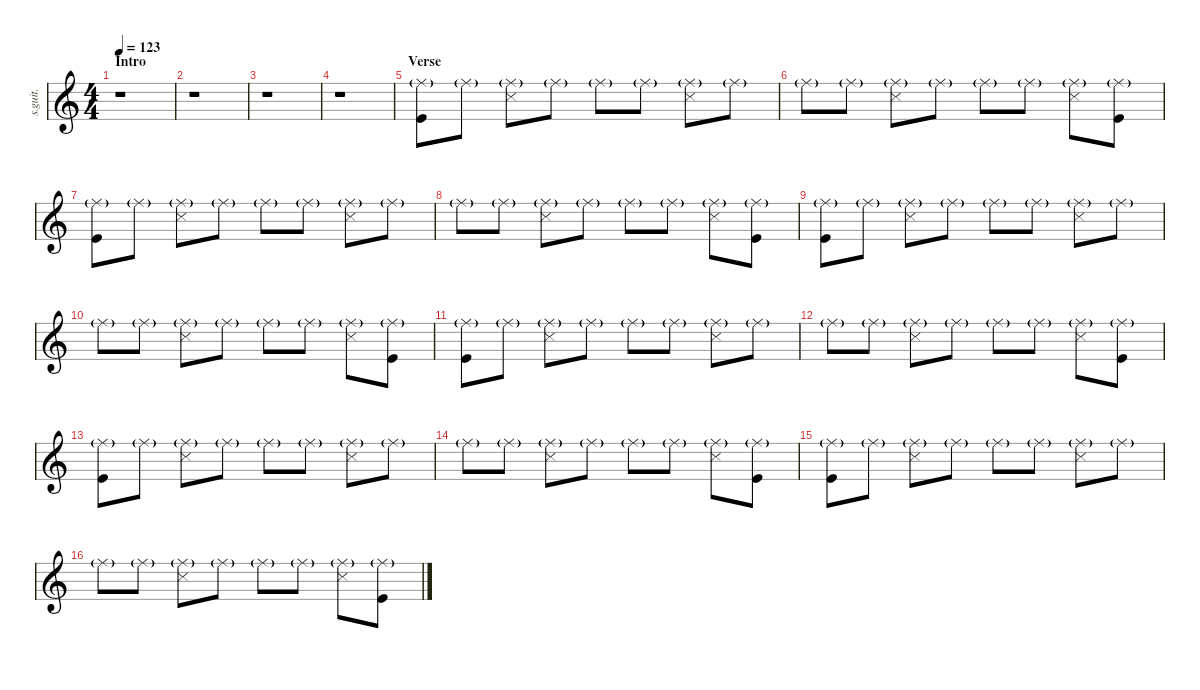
\defaultSystemsLayout 4
\hideDynamics
\bracketExtendMode nobrackets
\track ("Dave Grohl" "s.guit.") {instrument percussion}
\staff {score}
\articulation defaults
\ts (4 4)
\beaming (8 2 2 2 2)
\section ("" "Intro")
\tempo 123
\clef g2
\ks c
r.1{dy f} |
r.1 |
r.1 |
r.1 |
\section ("" "Verse")
("Ride (middle)"{g} "Kick (hit)").8{lyrics (0 "") lyrics (1 "") lyrics (2 "") lyrics (3 "") lyrics (4 "")} "Ride (middle)"{g}.8{lyrics (0 "") lyrics (1 "") lyrics (2 "") lyrics (3 "") lyrics (4 "") dy fff} ("Ride (middle)"{g} "Snare (side stick) 3").8{lyrics (0 "") lyrics (1 "") lyrics (2 "") lyrics (3 "") lyrics (4 "") dy f} "Ride (middle)"{g}.8{lyrics (0 "") lyrics (1 "") lyrics (2 "") lyrics (3 "") lyrics (4 "") dy fff} "Ride (middle)"{g}.8{lyrics (0 "") lyrics (1 "") lyrics (2 "") lyrics (3 "") lyrics (4 "")} "Ride (middle)"{g}.8{lyrics (0 "") lyrics (1 "") lyrics (2 "") lyrics (3 "") lyrics (4 "")} ("Ride (middle)"{g} "Snare (side stick) 3").8{lyrics (0 "") lyrics (1 "") lyrics (2 "") lyrics (3 "") lyrics (4 "") dy f} "Ride (middle)"{g}.8{lyrics (0 "") lyrics (1 "") lyrics (2 "") lyrics (3 "") lyrics (4 "") dy fff} |
"Ride (middle)"{g}.8{lyrics (0 "") lyrics (1 "") lyrics (2 "") lyrics (3 "") lyrics (4 "")} "Ride (middle)"{g}.8{lyrics (0 "") lyrics (1 "") lyrics (2 "") lyrics (3 "") lyrics (4 "")} ("Ride (middle)"{g} "Snare (side stick) 3").8{lyrics (0 "") lyrics (1 "") lyrics (2 "") lyrics (3 "") lyrics (4 "") dy f} "Ride (middle)"{g}.8{lyrics (0 "") lyrics (1 "") lyrics (2 "") lyrics (3 "") lyrics (4 "") dy fff} "Ride (middle)"{g}.8{lyrics (0 "") lyrics (1 "") lyrics (2 "") lyrics (3 "") lyrics (4 "")} "Ride (middle)"{g}.8{lyrics (0 "") lyrics (1 "") lyrics (2 "") lyrics (3 "") lyrics (4 "")} ("Ride (middle)"{g} "Snare (side stick) 3").8{lyrics (0 "") lyrics (1 "") lyrics (2 "") lyrics (3 "") lyrics (4 "") dy f} ("Ride (middle)"{g} "Kick (hit)").8{lyrics (0 "") lyrics (1 "") lyrics (2 "") lyrics (3 "") lyrics (4 "")} |
("Ride (middle)"{g} "Kick (hit)").8{lyrics (0 "") lyrics (1 "") lyrics (2 "") lyrics (3 "") lyrics (4 "")} "Ride (middle)"{g}.8{lyrics (0 "") lyrics (1 "") lyrics (2 "") lyrics (3 "") lyrics (4 "") dy fff} ("Ride (middle)"{g} "Snare (side stick) 3").8{lyrics (0 "") lyrics (1 "") lyrics (2 "") lyrics (3 "") lyrics (4 "") dy f} "Ride (middle)"{g}.8{lyrics (0 "") lyrics (1 "") lyrics (2 "") lyrics (3 "") lyrics (4 "") dy fff} "Ride (middle)"{g}.8{lyrics (0 "") lyrics (1 "") lyrics (2 "") lyrics (3 "") lyrics (4 "")} "Ride (middle)"{g}.8{lyrics (0 "") lyrics (1 "") lyrics (2 "") lyrics (3 "") lyrics (4 "")} ("Ride (middle)"{g} "Snare (side stick) 3").8{lyrics (0 "") lyrics (1 "") lyrics (2 "") lyrics (3 "") lyrics (4 "") dy f} "Ride (middle)"{g}.8{lyrics (0 "") lyrics (1 "") lyrics (2 "") lyrics (3 "") lyrics (4 "") dy fff} |
"Ride (middle)"{g}.8{lyrics (0 "") lyrics (1 "") lyrics (2 "") lyrics (3 "") lyrics (4 "")} "Ride (middle)"{g}.8{lyrics (0 "") lyrics (1 "") lyrics (2 "") lyrics (3 "") lyrics (4 "")} ("Ride (middle)"{g} "Snare (side stick) 3").8{lyrics (0 "") lyrics (1 "") lyrics (2 "") lyrics (3 "") lyrics (4 "") dy f} "Ride (middle)"{g}.8{lyrics (0 "") lyrics (1 "") lyrics (2 "") lyrics (3 "") lyrics (4 "") dy fff} "Ride (middle)"{g}.8{lyrics (0 "") lyrics (1 "") lyrics (2 "") lyrics (3 "") lyrics (4 "")} "Ride (middle)"{g}.8{lyrics (0 "") lyrics (1 "") lyrics (2 "") lyrics (3 "") lyrics (4 "")} ("Ride (middle)"{g} "Snare (side stick) 3").8{lyrics (0 "") lyrics (1 "") lyrics (2 "") lyrics (3 "") lyrics (4 "") dy f} ("Ride (middle)"{g} "Kick (hit)").8{lyrics (0 "") lyrics (1 "") lyrics (2 "") lyrics (3 "") lyrics (4 "")} |
("Ride (middle)"{g} "Kick (hit)").8{lyrics (0 "") lyrics (1 "") lyrics (2 "") lyrics (3 "") lyrics (4 "")} "Ride (middle)"{g}.8{lyrics (0 "") lyrics (1 "") lyrics (2 "") lyrics (3 "") lyrics (4 "") dy fff} ("Ride (middle)"{g} "Snare (side stick) 3").8{lyrics (0 "") lyrics (1 "") lyrics (2 "") lyrics (3 "") lyrics (4 "") dy f} "Ride (middle)"{g}.8{lyrics (0 "") lyrics (1 "") lyrics (2 "") lyrics (3 "") lyrics (4 "") dy fff} "Ride (middle)"{g}.8{lyrics (0 "") lyrics (1 "") lyrics (2 "") lyrics (3 "") lyrics (4 "")} "Ride (middle)"{g}.8{lyrics (0 "") lyrics (1 "") lyrics (2 "") lyrics (3 "") lyrics (4 "")} ("Ride (middle)"{g} "Snare (side stick) 3").8{lyrics (0 "") lyrics (1 "") lyrics (2 "") lyrics (3 "") lyrics (4 "") dy f} "Ride (middle)"{g}.8{lyrics (0 "") lyrics (1 "") lyrics (2 "") lyrics (3 "") lyrics (4 "") dy fff} |
"Ride (middle)"{g}.8{lyrics (0 "") lyrics (1 "") lyrics (2 "") lyrics (3 "") lyrics (4 "")} "Ride (middle)"{g}.8{lyrics (0 "") lyrics (1 "") lyrics (2 "") lyrics (3 "") lyrics (4 "")} ("Ride (middle)"{g} "Snare (side stick) 3").8{lyrics (0 "") lyrics (1 "") lyrics (2 "") lyrics (3 "") lyrics (4 "") dy f} "Ride (middle)"{g}.8{lyrics (0 "") lyrics (1 "") lyrics (2 "") lyrics (3 "") lyrics (4 "") dy fff} "Ride (middle)"{g}.8{lyrics (0 "") lyrics (1 "") lyrics (2 "") lyrics (3 "") lyrics (4 "")} "Ride (middle)"{g}.8{lyrics (0 "") lyrics (1 "") lyrics (2 "") lyrics (3 "") lyrics (4 "")} ("Ride (middle)"{g} "Snare (side stick) 3").8{lyrics (0 "") lyrics (1 "") lyrics (2 "") lyrics (3 "") lyrics (4 "") dy f} ("Ride (middle)"{g} "Kick (hit)").8{lyrics (0 "") lyrics (1 "") lyrics (2 "") lyrics (3 "") lyrics (4 "")} |
("Ride (middle)"{g} "Kick (hit)").8{lyrics (0 "") lyrics (1 "") lyrics (2 "") lyrics (3 "") lyrics (4 "")} "Ride (middle)"{g}.8{lyrics (0 "") lyrics (1 "") lyrics (2 "") lyrics (3 "") lyrics (4 "") dy fff} ("Ride (middle)"{g} "Snare (side stick) 3").8{lyrics (0 "") lyrics (1 "") lyrics (2 "") lyrics (3 "") lyrics (4 "") dy f} "Ride (middle)"{g}.8{lyrics (0 "") lyrics (1 "") lyrics (2 "") lyrics (3 "") lyrics (4 "") dy fff} "Ride (middle)"{g}.8{lyrics (0 "") lyrics (1 "") lyrics (2 "") lyrics (3 "") lyrics (4 "")} "Ride (middle)"{g}.8{lyrics (0 "") lyrics (1 "") lyrics (2 "") lyrics (3 "") lyrics (4 "")} ("Ride (middle)"{g} "Snare (side stick) 3").8{lyrics (0 "") lyrics (1 "") lyrics (2 "") lyrics (3 "") lyrics (4 "") dy f} "Ride (middle)"{g}.8{lyrics (0 "") lyrics (1 "") lyrics (2 "") lyrics (3 "") lyrics (4 "") dy fff} |
"Ride (middle)"{g}.8{lyrics (0 "") lyrics (1 "") lyrics (2 "") lyrics (3 "") lyrics (4 "")} "Ride (middle)"{g}.8{lyrics (0 "") lyrics (1 "") lyrics (2 "") lyrics (3 "") lyrics (4 "")} ("Ride (middle)"{g} "Snare (side stick) 3").8{lyrics (0 "") lyrics (1 "") lyrics (2 "") lyrics (3 "") lyrics (4 "") dy f} "Ride (middle)"{g}.8{lyrics (0 "") lyrics (1 "") lyrics (2 "") lyrics (3 "") lyrics (4 "") dy fff} "Ride (middle)"{g}.8{lyrics (0 "") lyrics (1 "") lyrics (2 "") lyrics (3 "") lyrics (4 "")} "Ride (middle)"{g}.8{lyrics (0 "") lyrics (1 "") lyrics (2 "") lyrics (3 "") lyrics (4 "")} ("Ride (middle)"{g} "Snare (side stick) 3").8{lyrics (0 "") lyrics (1 "") lyrics (2 "") lyrics (3 "") lyrics (4 "") dy f} ("Ride (middle)"{g} "Kick (hit)").8{lyrics (0 "") lyrics (1 "") lyrics (2 "") lyrics (3 "") lyrics (4 "")} |
("Ride (middle)"{g} "Kick (hit)").8{lyrics (0 "") lyrics (1 "") lyrics (2 "") lyrics (3 "") lyrics (4 "")} "Ride (middle)"{g}.8{lyrics (0 "") lyrics (1 "") lyrics (2 "") lyrics (3 "") lyrics (4 "") dy fff} ("Ride (middle)"{g} "Snare (side stick) 3").8{lyrics (0 "") lyrics (1 "") lyrics (2 "") lyrics (3 "") lyrics (4 "") dy f} "Ride (middle)"{g}.8{lyrics (0 "") lyrics (1 "") lyrics (2 "") lyrics (3 "") lyrics (4 "") dy fff} "Ride (middle)"{g}.8{lyrics (0 "") lyrics (1 "") lyrics (2 "") lyrics (3 "") lyrics (4 "")} "Ride (middle)"{g}.8{lyrics (0 "") lyrics (1 "") lyrics (2 "") lyrics (3 "") lyrics (4 "")} ("Ride (middle)"{g} "Snare (side stick) 3").8{lyrics (0 "") lyrics (1 "") lyrics (2 "") lyrics (3 "") lyrics (4 "") dy f} "Ride (middle)"{g}.8{lyrics (0 "") lyrics (1 "") lyrics (2 "") lyrics (3 "") lyrics (4 "") dy fff} |
"Ride (middle)"{g}.8{lyrics (0 "") lyrics (1 "") lyrics (2 "") lyrics (3 "") lyrics (4 "")} "Ride (middle)"{g}.8{lyrics (0 "") lyrics (1 "") lyrics (2 "") lyrics (3 "") lyrics (4 "")} ("Ride (middle)"{g} "Snare (side stick) 3").8{lyrics (0 "") lyrics (1 "") lyrics (2 "") lyrics (3 "") lyrics (4 "") dy f} "Ride (middle)"{g}.8{lyrics (0 "") lyrics (1 "") lyrics (2 "") lyrics (3 "") lyrics (4 "") dy fff} "Ride (middle)"{g}.8{lyrics (0 "") lyrics (1 "") lyrics (2 "") lyrics (3 "") lyrics (4 "")} "Ride (middle)"{g}.8{lyrics (0 "") lyrics (1 "") lyrics (2 "") lyrics (3 "") lyrics (4 "")} ("Ride (middle)"{g} "Snare (side stick) 3").8{lyrics (0 "") lyrics (1 "") lyrics (2 "") lyrics (3 "") lyrics (4 "") dy f} ("Ride (middle)"{g} "Kick (hit)").8{lyrics (0 "") lyrics (1 "") lyrics (2 "") lyrics (3 "") lyrics (4 "")} |
("Ride (middle)"{g} "Kick (hit)").8{lyrics (0 "") lyrics (1 "") lyrics (2 "") lyrics (3 "") lyrics (4 "")} "Ride (middle)"{g}.8{lyrics (0 "") lyrics (1 "") lyrics (2 "") lyrics (3 "") lyrics (4 "") dy fff} ("Ride (middle)"{g} "Snare (side stick) 3").8{lyrics (0 "") lyrics (1 "") lyrics (2 "") lyrics (3 "") lyrics (4 "") dy f} "Ride (middle)"{g}.8{lyrics (0 "") lyrics (1 "") lyrics (2 "") lyrics (3 "") lyrics (4 "") dy fff} "Ride (middle)"{g}.8{lyrics (0 "") lyrics (1 "") lyrics (2 "") lyrics (3 "") lyrics (4 "")} "Ride (middle)"{g}.8{lyrics (0 "") lyrics (1 "") lyrics (2 "") lyrics (3 "") lyrics (4 "")} ("Ride (middle)"{g} "Snare (side stick) 3").8{lyrics (0 "") lyrics (1 "") lyrics (2 "") lyrics (3 "") lyrics (4 "") dy f} "Ride (middle)"{g}.8{lyrics (0 "") lyrics (1 "") lyrics (2 "") lyrics (3 "") lyrics (4 "") dy fff} |
"Ride (middle)"{g}.8{lyrics (0 "") lyrics (1 "") lyrics (2 "") lyrics (3 "") lyrics (4 "")} "Ride (middle)"{g}.8{lyrics (0 "") lyrics (1 "") lyrics (2 "") lyrics (3 "") lyrics (4 "")} ("Ride (middle)"{g} "Snare (side stick) 3").8{lyrics (0 "") lyrics (1 "") lyrics (2 "") lyrics (3 "") lyrics (4 "") dy f} "Ride (middle)"{g}.8{lyrics (0 "") lyrics (1 "") lyrics (2 "") lyrics (3 "") lyrics (4 "") dy fff} "Ride (middle)"{g}.8{lyrics (0 "") lyrics (1 "") lyrics (2 "") lyrics (3 "") lyrics (4 "")} "Ride (middle)"{g}.8{lyrics (0 "") lyrics (1 "") lyrics (2 "") lyrics (3 "") lyrics (4 "")} ("Ride (middle)"{g} "Snare (side stick) 3").8{lyrics (0 "") lyrics (1 "") lyrics (2 "") lyrics (3 "") lyrics (4 "") dy f} ("Ride (middle)"{g} "Kick (hit)").8{lyrics (0 "") lyrics (1 "") lyrics (2 "") lyrics (3 "") lyrics (4 "")}
